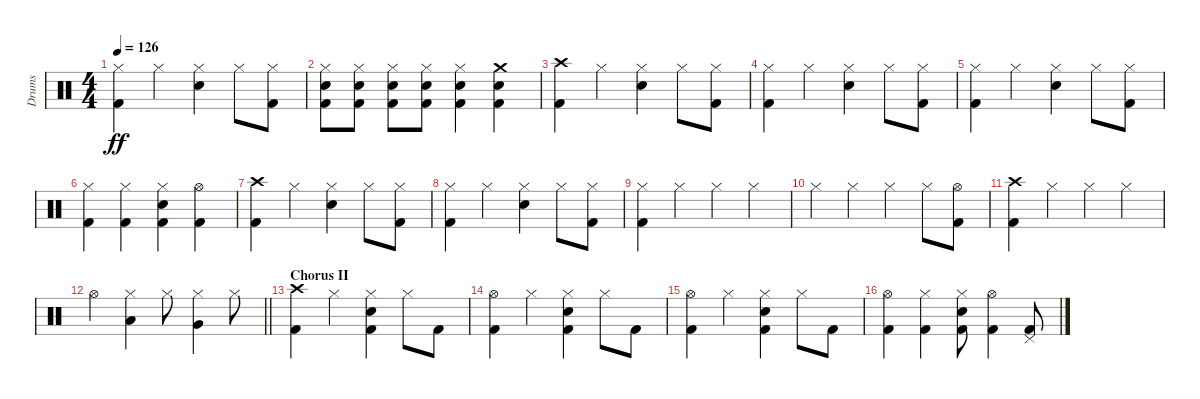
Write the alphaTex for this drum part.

\track ("Drums" "Drums") {instrument percussion}
\staff {score}
\articulation defaults
\ts (4 4)
\tempo 126
\clef neutral
\ks c
("Hi-Hat (closed)" "Kick (hit) 2").4{dy ff} "Hi-Hat (closed)".4 ("Hi-Hat (closed)" "Snare (hit) 2").4 "Hi-Hat (closed)".8 ("Hi-Hat (closed)" "Kick (hit) 2").8 |
("Hi-Hat (closed)" "Snare (hit) 2" "Kick (hit) 2").8 ("Hi-Hat (closed)" "Snare (hit) 2" "Kick (hit) 2").8 ("Hi-Hat (closed)" "Snare (hit) 2" "Kick (hit) 2").8 ("Hi-Hat (closed)" "Snare (hit) 2" "Kick (hit) 2").8 ("Hi-Hat (closed)" "Snare (hit) 2" "Kick (hit) 2").4 ("Crash medium (hit)" "Snare (hit) 2" "Kick (hit) 2").4 |
("Crash high (hit)" "Kick (hit) 2").4 "Hi-Hat (closed)".4 ("Hi-Hat (closed)" "Snare (hit) 2").4 "Hi-Hat (closed)".8 ("Hi-Hat (closed)" "Kick (hit) 2").8 |
("Hi-Hat (closed)" "Kick (hit) 2").4 "Hi-Hat (closed)".4 ("Hi-Hat (closed)" "Snare (hit) 2").4 "Hi-Hat (closed)".8 ("Hi-Hat (closed)" "Kick (hit) 2").8 |
("Hi-Hat (closed)" "Kick (hit) 2").4 "Hi-Hat (closed)".4 ("Hi-Hat (closed)" "Snare (hit) 2").4 "Hi-Hat (closed)".8 ("Hi-Hat (closed)" "Kick (hit) 2").8 |
("Hi-Hat (closed)" "Kick (hit) 2").4 ("Hi-Hat (closed)" "Kick (hit) 2").4 ("Hi-Hat (closed)" "Snare (hit) 2" "Kick (hit) 2").4 ("Hi-Hat (open)" "Kick (hit) 2").4 |
("Crash high (hit)" "Kick (hit) 2").4 "Hi-Hat (closed)".4 ("Hi-Hat (closed)" "Snare (hit) 2").4 "Hi-Hat (closed)".8 ("Hi-Hat (closed)" "Kick (hit) 2").8 |
("Hi-Hat (closed)" "Kick (hit) 2").4 "Hi-Hat (closed)".4 ("Hi-Hat (closed)" "Snare (hit) 2").4 "Hi-Hat (closed)".8 ("Hi-Hat (closed)" "Kick (hit) 2").8 |
("Hi-Hat (closed)" "Kick (hit) 2").4 "Hi-Hat (closed)".4 "Hi-Hat (closed)".4 "Hi-Hat (closed)".4 |
"Hi-Hat (closed)".4 "Hi-Hat (closed)".4 "Hi-Hat (closed)".4 "Hi-Hat (closed)".8 ("Hi-Hat (open)" "Kick (hit) 2").8 |
("Crash high (hit)" "Kick (hit) 2").4 "Hi-Hat (closed)".4 "Hi-Hat (closed)".4 "Hi-Hat (closed)".4 |
\barLineRight lightlight "Hi-Hat (open)".4
("Hi-Hat (closed)" "Low Tom (hit)").4 "Hi-Hat (closed)".8 ("Hi-Hat (closed)" "Very Low Tom (hit)").4 "Hi-Hat (closed)".8 |
\section ("" "Chorus II")
("Crash high (hit)" "Kick (hit) 2").4 "Hi-Hat (closed)".4 ("Hi-Hat (closed)" "Snare (hit) 2" "Kick (hit) 2").4 "Hi-Hat (closed)".8 "Kick (hit) 2".8 |
("Hi-Hat (open)" "Kick (hit) 2").4 "Hi-Hat (closed)".4 ("Hi-Hat (closed)" "Snare (hit) 2" "Kick (hit) 2").4 "Hi-Hat (closed)".8 "Kick (hit) 2".8 |
("Hi-Hat (open)" "Kick (hit) 2").4 "Hi-Hat (closed)".4 ("Hi-Hat (closed)" "Snare (hit) 2" "Kick (hit) 2").4 "Hi-Hat (closed)".8 "Kick (hit) 2".8 |
("Hi-Hat (open)" "Kick (hit) 2").4 ("Hi-Hat (closed)" "Kick (hit) 2").4 ("Hi-Hat (closed)" "Snare (hit) 2" "Kick (hit) 2").8 ("Hi-Hat (open)" "Kick (hit) 2").4 ("Pedal Hi-Hat (hit)" "Kick (hit) 2").8
